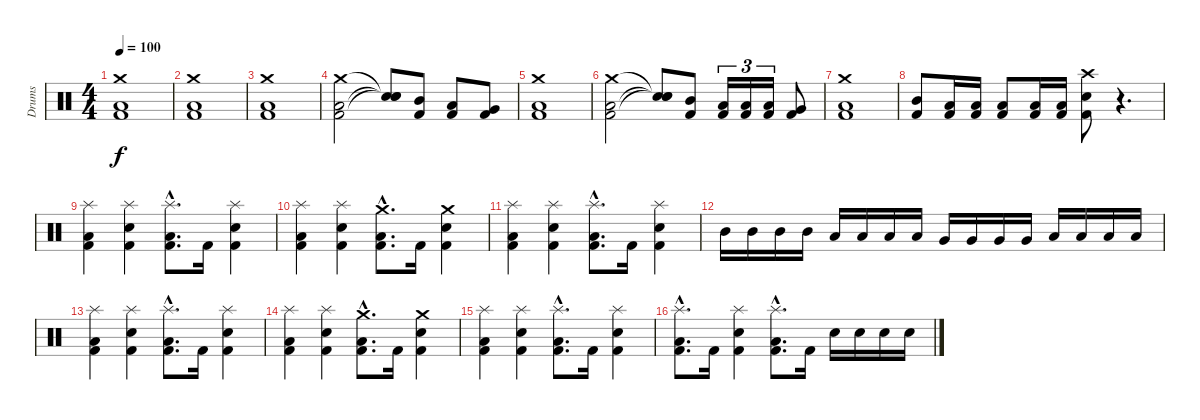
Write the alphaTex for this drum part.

\track ("Drums" "Drums") {instrument percussion}
\staff {score}
\articulation defaults
\ts (4 4)
\tempo 100
\clef neutral
\ks c
("Crash medium (hit)" "Low Floor Tom (hit)" "Kick (hit) 2").1{dy f} |
("Crash medium (hit)" "Low Floor Tom (hit)" "Kick (hit) 2").1 |
("Crash medium (hit)" "Low Floor Tom (hit)" "Kick (hit) 2").1 |
("Crash medium (hit)" "Low Floor Tom (hit)" "Kick (hit) 2").2 ("Snare (hit)"{t} "Snare (hit)"{t} "Snare (hit)"{t}).8 ("Mid Tom (hit)" "Kick (hit) 2").8 ("Low Tom (hit)" "Kick (hit) 2").8 ("Very Low Tom (hit)" "Kick (hit) 2").8 |
("Crash medium (hit)" "Low Floor Tom (hit)" "Kick (hit) 2").1 |
("Crash medium (hit)" "Low Floor Tom (hit)" "Kick (hit) 2").2 ("Snare (hit)"{t} "Snare (hit)"{t} "Snare (hit)"{t}).8 ("Mid Tom (hit)" "Kick (hit) 2").8 ("Low Tom (hit)" "Kick (hit) 2").16{tu (3 2)} ("Low Tom (hit)" "Kick (hit) 2").16{tu (3 2)} ("Low Tom (hit)" "Kick (hit) 2").16{tu (3 2)} ("Very Low Tom (hit)" "Kick (hit) 2").8 |
("Crash medium (hit)" "Low Floor Tom (hit)" "Kick (hit) 2").1 |
("Mid Tom (hit)" "Kick (hit) 2").8 ("Low Floor Tom (hit)" "Kick (hit) 2").16 ("Low Floor Tom (hit)" "Kick (hit) 2").16 ("Low Tom (hit)" "Kick (hit) 2").8 ("Low Floor Tom (hit)" "Kick (hit) 2").16 ("Low Floor Tom (hit)" "Kick (hit) 2").16 ("Crash high (hit)" "Snare (hit) 2" "Kick (hit) 2").8 r.4{d} |
("Splash (hit)" "Low Floor Tom (hit)" "Kick (hit) 2").4 ("Splash (hit)" "Snare (hit) 2" "Kick (hit) 2").4 ("Splash (hit)"{hac} "Low Floor Tom (hit)"{hac} "Kick (hit) 2"{hac}).8{d} "Kick (hit) 2".16 ("Splash (hit)" "Snare (hit) 2" "Kick (hit) 2").4 |
("Splash (hit)" "Low Floor Tom (hit)" "Kick (hit) 2").4 ("Splash (hit)" "Snare (hit) 2" "Kick (hit) 2").4 ("Crash medium (hit)"{hac} "Low Floor Tom (hit)"{hac} "Kick (hit) 2"{hac}).8{d} "Kick (hit) 2".16 ("Crash medium (hit)" "Snare (hit) 2" "Kick (hit) 2").4 |
("Splash (hit)" "Low Floor Tom (hit)" "Kick (hit) 2").4 ("Splash (hit)" "Snare (hit) 2" "Kick (hit) 2").4 ("Splash (hit)"{hac} "Low Floor Tom (hit)"{hac} "Kick (hit) 2"{hac}).8{d} "Kick (hit) 2".16 ("Splash (hit)" "Snare (hit) 2" "Kick (hit) 2").4 |
"Mid Tom (hit)".16 "Mid Tom (hit)".16 "Mid Tom (hit)".16 "Mid Tom (hit)".16 "Low Tom (hit)".16 "Low Tom (hit)".16 "Low Tom (hit)".16 "Low Tom (hit)".16 "Very Low Tom (hit)".16 "Very Low Tom (hit)".16 "Very Low Tom (hit)".16 "Very Low Tom (hit)".16 "Low Floor Tom (hit)".16 "Low Floor Tom (hit)".16 "Low Floor Tom (hit)".16 "Low Floor Tom (hit)".16 |
("Splash (hit)" "Low Floor Tom (hit)" "Kick (hit) 2").4 ("Splash (hit)" "Snare (hit) 2" "Kick (hit) 2").4 ("Splash (hit)"{hac} "Low Floor Tom (hit)"{hac} "Kick (hit) 2"{hac}).8{d} "Kick (hit) 2".16 ("Splash (hit)" "Snare (hit) 2" "Kick (hit) 2").4 |
("Splash (hit)" "Low Floor Tom (hit)" "Kick (hit) 2").4 ("Splash (hit)" "Snare (hit) 2" "Kick (hit) 2").4 ("Crash medium (hit)"{hac} "Low Floor Tom (hit)"{hac} "Kick (hit) 2"{hac}).8{d} "Kick (hit) 2".16 ("Crash medium (hit)" "Snare (hit) 2" "Kick (hit) 2").4 |
("Splash (hit)" "Low Floor Tom (hit)" "Kick (hit) 2").4 ("Splash (hit)" "Snare (hit) 2" "Kick (hit) 2").4 ("Splash (hit)"{hac} "Low Floor Tom (hit)"{hac} "Kick (hit) 2"{hac}).8{d} "Kick (hit) 2".16 ("Splash (hit)" "Snare (hit) 2" "Kick (hit) 2").4 |
("Splash (hit)"{hac} "Low Floor Tom (hit)"{hac} "Kick (hit) 2"{hac}).8{d} "Kick (hit) 2".16 ("Splash (hit)" "Snare (hit) 2" "Kick (hit) 2").4 ("Splash (hit)"{hac} "Low Floor Tom (hit)"{hac} "Kick (hit) 2"{hac}).8{d} "Kick (hit) 2".16 "Snare (hit) 2".16 "Snare (hit) 2".16 "Snare (hit) 2".16 "Snare (hit) 2".16
